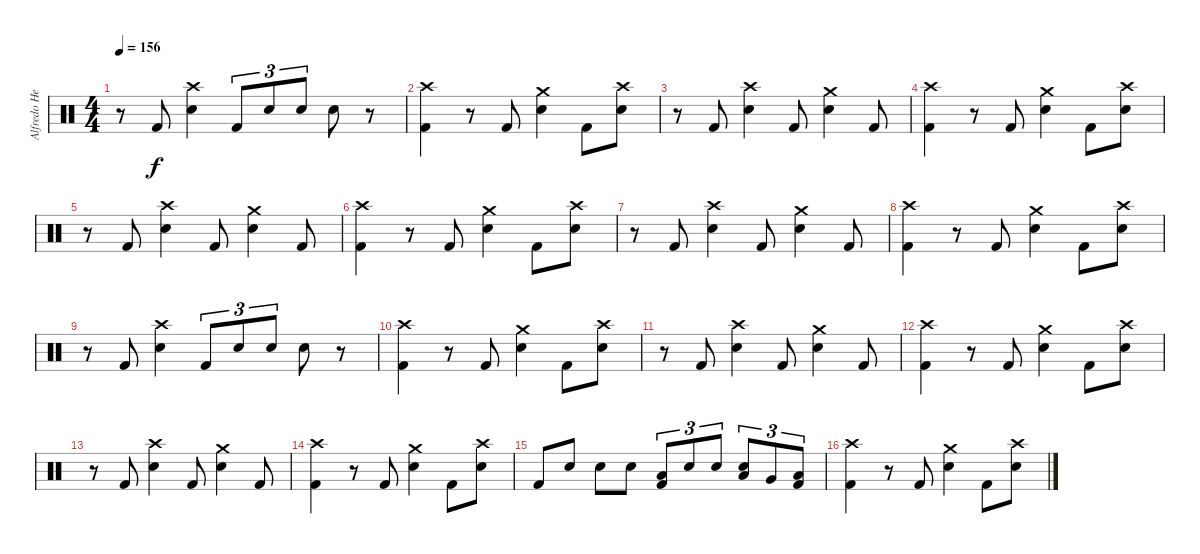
\track ("Alfredo Hernández" "Alfredo He") {instrument percussion}
\staff {score}
\articulation defaults
\ts (4 4)
\tempo 156
\clef neutral
\ks c
r.8{dy f} "Kick (hit) 2".8 ("Electric Snare (hit)" "Crash high (hit)").4 "Kick (hit) 2".8{tu (3 2)} "Electric Snare (hit)".8{tu (3 2)} "Electric Snare (hit)".8{tu (3 2)} "Electric Snare (hit)".8 r.8 |
("Crash high (hit)" "Kick (hit) 2").4 r.8 "Kick (hit) 2".8 ("Electric Snare (hit)" "Crash medium (hit)").4 "Kick (hit) 2".8 ("Electric Snare (hit)" "Crash high (hit)").8 |
r.8 "Kick (hit) 2".8 ("Electric Snare (hit)" "Crash high (hit)").4 "Kick (hit) 2".8 ("Electric Snare (hit)" "Crash medium (hit)").4 "Kick (hit) 2".8 |
("Crash high (hit)" "Kick (hit) 2").4 r.8 "Kick (hit) 2".8 ("Electric Snare (hit)" "Crash medium (hit)").4 "Kick (hit) 2".8 ("Electric Snare (hit)" "Crash high (hit)").8 |
r.8 "Kick (hit) 2".8 ("Electric Snare (hit)" "Crash high (hit)").4 "Kick (hit) 2".8 ("Electric Snare (hit)" "Crash medium (hit)").4 "Kick (hit) 2".8 |
("Crash high (hit)" "Kick (hit) 2").4 r.8 "Kick (hit) 2".8 ("Electric Snare (hit)" "Crash medium (hit)").4 "Kick (hit) 2".8 ("Electric Snare (hit)" "Crash high (hit)").8 |
r.8 "Kick (hit) 2".8 ("Electric Snare (hit)" "Crash high (hit)").4 "Kick (hit) 2".8 ("Electric Snare (hit)" "Crash medium (hit)").4 "Kick (hit) 2".8 |
("Crash high (hit)" "Kick (hit) 2").4 r.8 "Kick (hit) 2".8 ("Electric Snare (hit)" "Crash medium (hit)").4 "Kick (hit) 2".8 ("Electric Snare (hit)" "Crash high (hit)").8 |
r.8 "Kick (hit) 2".8 ("Electric Snare (hit)" "Crash high (hit)").4 "Kick (hit) 2".8{tu (3 2)} "Electric Snare (hit)".8{tu (3 2)} "Electric Snare (hit)".8{tu (3 2)} "Electric Snare (hit)".8 r.8 |
("Crash high (hit)" "Kick (hit) 2").4 r.8 "Kick (hit) 2".8 ("Electric Snare (hit)" "Crash medium (hit)").4 "Kick (hit) 2".8 ("Electric Snare (hit)" "Crash high (hit)").8 |
r.8 "Kick (hit) 2".8 ("Electric Snare (hit)" "Crash high (hit)").4 "Kick (hit) 2".8 ("Electric Snare (hit)" "Crash medium (hit)").4 "Kick (hit) 2".8 |
("Crash high (hit)" "Kick (hit) 2").4 r.8 "Kick (hit) 2".8 ("Electric Snare (hit)" "Crash medium (hit)").4 "Kick (hit) 2".8 ("Electric Snare (hit)" "Crash high (hit)").8 |
r.8 "Kick (hit) 2".8 ("Electric Snare (hit)" "Crash high (hit)").4 "Kick (hit) 2".8 ("Electric Snare (hit)" "Crash medium (hit)").4 "Kick (hit) 2".8 |
("Crash high (hit)" "Kick (hit) 2").4 r.8 "Kick (hit) 2".8 ("Electric Snare (hit)" "Crash medium (hit)").4 "Kick (hit) 2".8 ("Electric Snare (hit)" "Crash high (hit)").8 |
"Kick (hit) 2".8 "Electric Snare (hit)".8 "Electric Snare (hit)".8 "Electric Snare (hit)".8 ("Low Floor Tom (hit)" "Kick (hit) 2").8{tu (3 2)} "Electric Snare (hit)".8{tu (3 2)} "Electric Snare (hit)".8{tu (3 2)} ("Electric Snare (hit)" "Low Tom (hit)").8{tu (3 2)} "Very Low Tom (hit)".8{tu (3 2)} ("Low Floor Tom (hit)" "Kick (hit) 2").8{tu (3 2)} |
("Crash high (hit)" "Kick (hit) 2").4 r.8 "Kick (hit) 2".8 ("Electric Snare (hit)" "Crash medium (hit)").4 "Kick (hit) 2".8 ("Electric Snare (hit)" "Crash high (hit)").8
